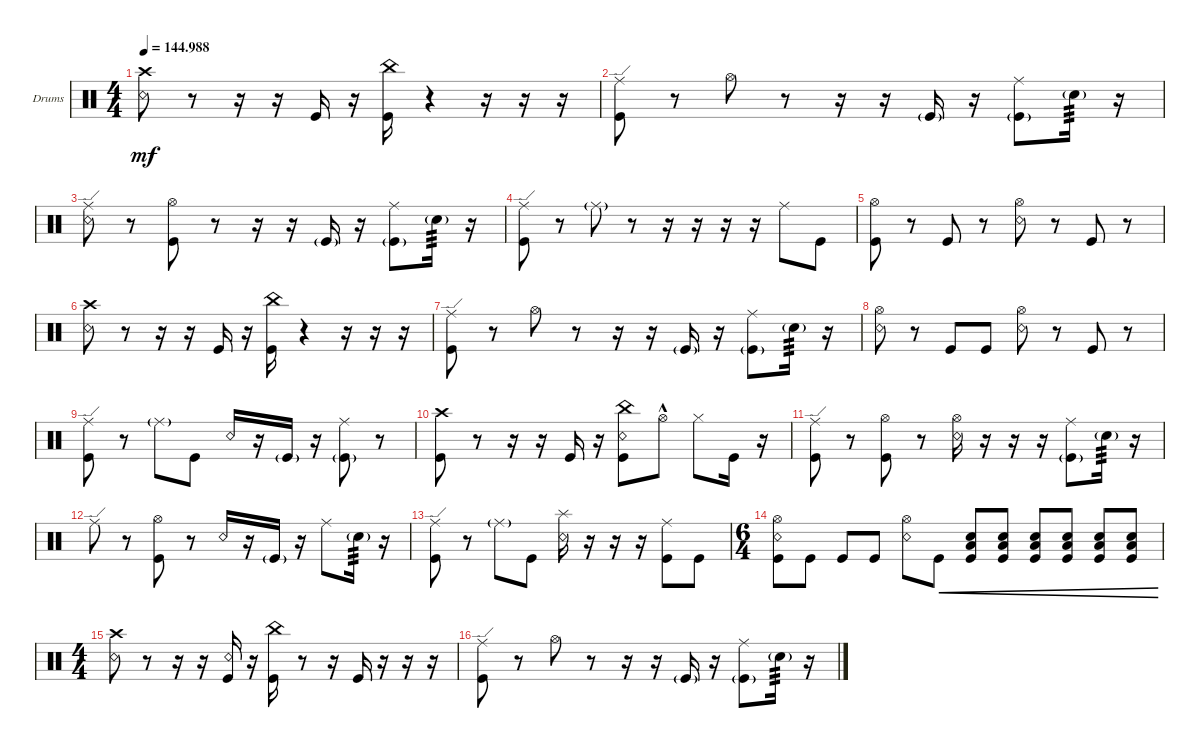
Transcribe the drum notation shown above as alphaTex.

\defaultSystemsLayout 4
\bracketExtendMode groupsimilarinstruments
\firstSystemTrackNameOrientation horizontal
\otherSystemsTrackNameOrientation horizontal
\track ("Drumkit" "Drums") {solo instrument percussion}
\staff {score}
\articulation defaults
\ts (4 4)
\tempo
144.988
\accidentals auto
\clef neutral
\ottava regular
\simile none
\ks c
("Snare (rim shot)" "Crash high (hit)").8{dy mf} r.8 r.16 r.16 "Kick (hit)".16 r.16 ("Kick (hit)" "China (hit)").16 r.4 r.16 r.16 r.16 |
("Kick (hit)" "Ride (edge)").8 r.8 "Hi-Hat (open)".8 r.8 r.16 r.16 "Kick (hit)"{g}.16 r.16 ("Ride (middle)" "Kick (hit)"{g}).8 "Snare (hit) 2"{g}.16{tp 3} r.16 |
("Ride (edge)" "Snare (rim shot)").8 r.8 ("Hi-Hat (open)" "Kick (hit)").8 r.8 r.16 r.16 "Kick (hit)"{g}.16 r.16 ("Ride (middle)" "Kick (hit)"{g}).8 "Snare (hit) 2"{g}.16{tp 3} r.16 |
("Kick (hit)" "Ride (edge)").8 r.8 "Ride (middle)"{g}.8 r.8 r.16 r.16 r.16 r.16 "Ride (middle)".8 "Kick (hit)".8 |
("Kick (hit)" "Hi-Hat (open)").8 r.8 "Kick (hit)".8 r.8 ("Snare (rim shot)" "Hi-Hat (open)").8 r.8 "Kick (hit)".8 r.8 |
("Snare (rim shot)" "Crash high (hit)").8 r.8 r.16 r.16 "Kick (hit)".16 r.16 ("Kick (hit)" "China (hit)").16 r.4 r.16 r.16 r.16 |
("Kick (hit)" "Ride (edge)").8 r.8 "Hi-Hat (open)".8 r.8 r.16 r.16 "Kick (hit)"{g}.16 r.16 ("Ride (middle)" "Kick (hit)"{g}).8 "Snare (hit) 2"{g}.16{tp 3} r.16 |
("Snare (rim shot)" "Hi-Hat (open)").8 r.8 "Kick (hit)".8 "Kick (hit)".8 ("Snare (rim shot)" "Hi-Hat (open)").8 r.8 "Kick (hit)".8 r.8 |
("Kick (hit)" "Ride (edge)").8 r.8 "Ride (middle)"{g}.8 "Kick (hit)".8 "Snare (rim shot)".16 r.16 "Kick (hit)"{g}.16 r.16 ("Ride (middle)" "Kick (hit)"{g}).8 r.8 |
("Crash high (hit)" "Kick (hit)").8 r.8 r.16 r.16 "Kick (hit)".16 r.16 ("Kick (hit)" "China (hit)" "Snare (rim shot)").8 "Hi-Hat (open)"{hac}.8 "Hi-Hat (closed)".8 "Kick (hit)".16 r.16 |
("Kick (hit)" "Ride (edge)").8 r.8 ("Hi-Hat (open)" "Kick (hit)").8 r.8 ("Snare (rim shot)" "Hi-Hat (open)").16 r.16 r.16 r.16 ("Ride (middle)" "Kick (hit)"{g}).8 "Snare (hit) 2"{g}.16{tp 3} r.16 |
"Ride (edge)".8 r.8 ("Hi-Hat (open)" "Kick (hit)").8 r.8 "Snare (rim shot)".16 r.16 "Kick (hit)"{g}.16 r.16 "Ride (middle)".8 "Snare (hit) 2"{g}.16{tp 3} r.16 |
("Kick (hit)" "Ride (edge)").8 r.8 "Ride (middle)"{g}.8 "Kick (hit)".8 ("Snare (rim shot)" "Splash (hit)").16 r.16 r.16 r.16 ("Ride (middle)" "Kick (hit)").8 "Kick (hit)".8 |
\ts (6 4)
("Kick (hit)" "Hi-Hat (open)" "Snare (rim shot)").8 "Kick (hit)".8 "Kick (hit)".8 "Kick (hit)".8 ("Snare (rim shot)" "Hi-Hat (open)").8 "Kick (hit)".8{cre} ("Kick (hit)" "Low Tom (hit)" "Snare (hit) 2").8{cre} ("Kick (hit)" "Low Tom (hit)" "Snare (hit) 2").8{cre} ("Kick (hit)" "Low Tom (hit)" "Snare (hit) 2").8{cre} ("Kick (hit)" "Low Tom (hit)" "Snare (hit) 2").8{cre} ("Kick (hit)" "Snare (hit) 2" "Low Tom (hit)").8{cre} ("Kick (hit)" "Low Tom (hit)" "Snare (hit) 2").8{cre} |
\ts (4 4)
("Snare (rim shot)" "Crash high (hit)").8 r.8 r.16 r.16 ("Kick (hit)" "Snare (rim shot)").16 r.16 ("Kick (hit)" "China (hit)").16 r.8 r.16 "Kick (hit)".16 r.16 r.16 r.16 |
("Kick (hit)" "Ride (edge)").8 r.8 "Hi-Hat (open)".8 r.8 r.16 r.16 "Kick (hit)"{g}.16 r.16 ("Ride (middle)" "Kick (hit)"{g}).8 "Snare (hit) 2"{g}.16{tp 3} r.16
